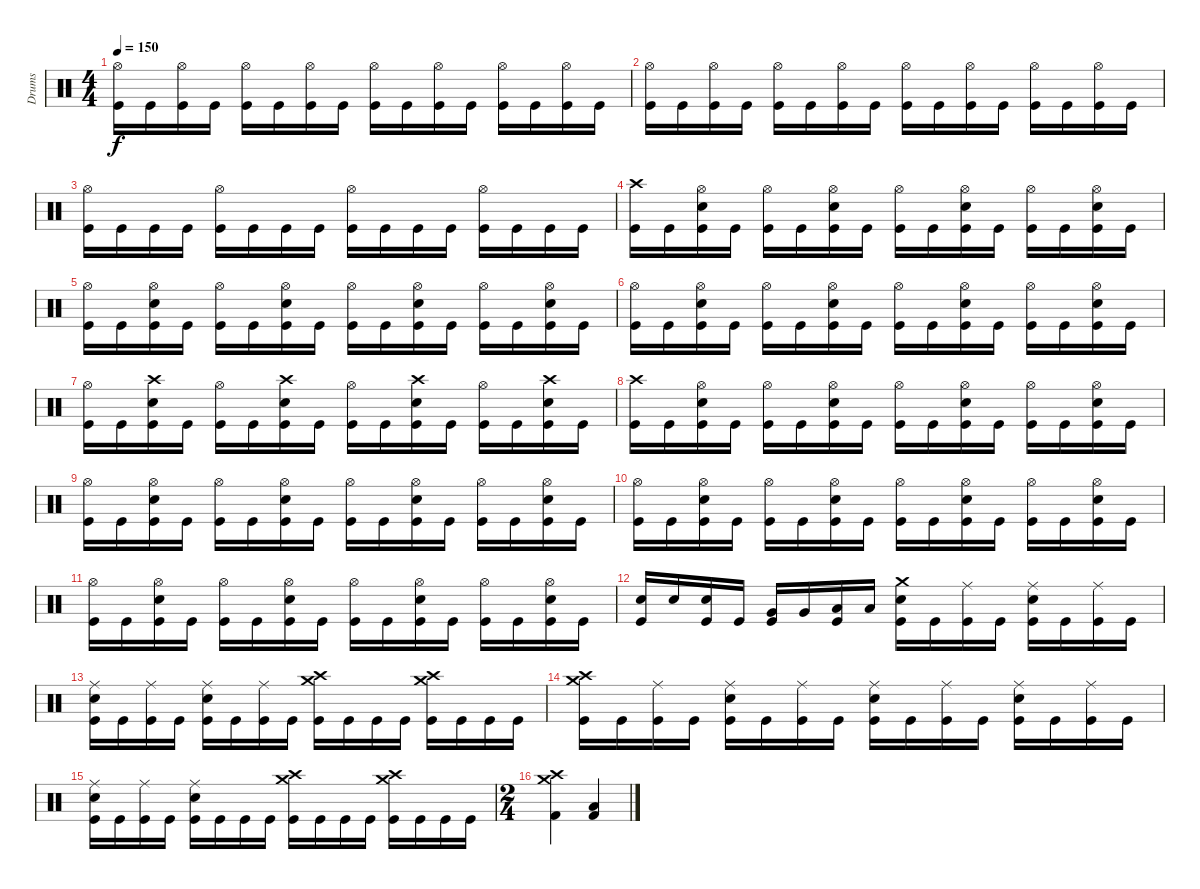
\track ("Drums" "Drums") {instrument percussion}
\staff {score}
\articulation defaults
\ts (4 4)
\tempo 150
\clef neutral
\ks c
("Hi-Hat (open)" "Kick (hit)").16{dy f} "Kick (hit)".16 ("Hi-Hat (open)" "Kick (hit)").16 "Kick (hit)".16 ("Hi-Hat (open)" "Kick (hit)").16 "Kick (hit)".16 ("Hi-Hat (open)" "Kick (hit)").16 "Kick (hit)".16 ("Hi-Hat (open)" "Kick (hit)").16 "Kick (hit)".16 ("Hi-Hat (open)" "Kick (hit)").16 "Kick (hit)".16 ("Hi-Hat (open)" "Kick (hit)").16 "Kick (hit)".16 ("Hi-Hat (open)" "Kick (hit)").16 "Kick (hit)".16 |
("Hi-Hat (open)" "Kick (hit)").16 "Kick (hit)".16 ("Hi-Hat (open)" "Kick (hit)").16 "Kick (hit)".16 ("Hi-Hat (open)" "Kick (hit)").16 "Kick (hit)".16 ("Hi-Hat (open)" "Kick (hit)").16 "Kick (hit)".16 ("Hi-Hat (open)" "Kick (hit)").16 "Kick (hit)".16 ("Hi-Hat (open)" "Kick (hit)").16 "Kick (hit)".16 ("Hi-Hat (open)" "Kick (hit)").16 "Kick (hit)".16 ("Hi-Hat (open)" "Kick (hit)").16 "Kick (hit)".16 |
("Hi-Hat (open)" "Kick (hit)").16 "Kick (hit)".16 "Kick (hit)".16 "Kick (hit)".16 ("Hi-Hat (open)" "Kick (hit)").16 "Kick (hit)".16 "Kick (hit)".16 "Kick (hit)".16 ("Hi-Hat (open)" "Kick (hit)").16 "Kick (hit)".16 "Kick (hit)".16 "Kick (hit)".16 ("Hi-Hat (open)" "Kick (hit)").16 "Kick (hit)".16 "Kick (hit)".16 "Kick (hit)".16 |
("Crash high (hit)" "Kick (hit)").16 "Kick (hit)".16 ("Hi-Hat (open)" "Snare (hit) 2" "Kick (hit)").16 "Kick (hit)".16 ("Hi-Hat (open)" "Kick (hit)").16 "Kick (hit)".16 ("Hi-Hat (open)" "Snare (hit) 2" "Kick (hit)").16 "Kick (hit)".16 ("Hi-Hat (open)" "Kick (hit)").16 "Kick (hit)".16 ("Hi-Hat (open)" "Snare (hit) 2" "Kick (hit)").16 "Kick (hit)".16 ("Hi-Hat (open)" "Kick (hit)").16 "Kick (hit)".16 ("Hi-Hat (open)" "Snare (hit) 2" "Kick (hit)").16 "Kick (hit)".16 |
("Hi-Hat (open)" "Kick (hit)").16 "Kick (hit)".16 ("Hi-Hat (open)" "Snare (hit) 2" "Kick (hit)").16 "Kick (hit)".16 ("Hi-Hat (open)" "Kick (hit)").16 "Kick (hit)".16 ("Hi-Hat (open)" "Snare (hit) 2" "Kick (hit)").16 "Kick (hit)".16 ("Hi-Hat (open)" "Kick (hit)").16 "Kick (hit)".16 ("Hi-Hat (open)" "Snare (hit) 2" "Kick (hit)").16 "Kick (hit)".16 ("Hi-Hat (open)" "Kick (hit)").16 "Kick (hit)".16 ("Hi-Hat (open)" "Snare (hit) 2" "Kick (hit)").16 "Kick (hit)".16 |
("Hi-Hat (open)" "Kick (hit)").16 "Kick (hit)".16 ("Hi-Hat (open)" "Snare (hit) 2" "Kick (hit)").16 "Kick (hit)".16 ("Hi-Hat (open)" "Kick (hit)").16 "Kick (hit)".16 ("Hi-Hat (open)" "Snare (hit) 2" "Kick (hit)").16 "Kick (hit)".16 ("Hi-Hat (open)" "Kick (hit)").16 "Kick (hit)".16 ("Hi-Hat (open)" "Snare (hit) 2" "Kick (hit)").16 "Kick (hit)".16 ("Hi-Hat (open)" "Kick (hit)").16 "Kick (hit)".16 ("Hi-Hat (open)" "Snare (hit) 2" "Kick (hit)").16 "Kick (hit)".16 |
("Hi-Hat (open)" "Kick (hit)").16 "Kick (hit)".16 ("Crash high (hit)" "Snare (hit) 2" "Kick (hit)").16 "Kick (hit)".16 ("Hi-Hat (open)" "Kick (hit)").16 "Kick (hit)".16 ("Crash high (hit)" "Snare (hit) 2" "Kick (hit)").16 "Kick (hit)".16 ("Hi-Hat (open)" "Kick (hit)").16 "Kick (hit)".16 ("Crash high (hit)" "Snare (hit) 2" "Kick (hit)").16 "Kick (hit)".16 ("Hi-Hat (open)" "Kick (hit)").16 "Kick (hit)".16 ("Crash high (hit)" "Snare (hit) 2" "Kick (hit)").16 "Kick (hit)".16 |
("Crash high (hit)" "Kick (hit)").16 "Kick (hit)".16 ("Hi-Hat (open)" "Snare (hit) 2" "Kick (hit)").16 "Kick (hit)".16 ("Hi-Hat (open)" "Kick (hit)").16 "Kick (hit)".16 ("Hi-Hat (open)" "Snare (hit) 2" "Kick (hit)").16 "Kick (hit)".16 ("Hi-Hat (open)" "Kick (hit)").16 "Kick (hit)".16 ("Hi-Hat (open)" "Snare (hit) 2" "Kick (hit)").16 "Kick (hit)".16 ("Hi-Hat (open)" "Kick (hit)").16 "Kick (hit)".16 ("Hi-Hat (open)" "Snare (hit) 2" "Kick (hit)").16 "Kick (hit)".16 |
("Hi-Hat (open)" "Kick (hit)").16 "Kick (hit)".16 ("Hi-Hat (open)" "Snare (hit) 2" "Kick (hit)").16 "Kick (hit)".16 ("Hi-Hat (open)" "Kick (hit)").16 "Kick (hit)".16 ("Hi-Hat (open)" "Snare (hit) 2" "Kick (hit)").16 "Kick (hit)".16 ("Hi-Hat (open)" "Kick (hit)").16 "Kick (hit)".16 ("Hi-Hat (open)" "Snare (hit) 2" "Kick (hit)").16 "Kick (hit)".16 ("Hi-Hat (open)" "Kick (hit)").16 "Kick (hit)".16 ("Hi-Hat (open)" "Snare (hit) 2" "Kick (hit)").16 "Kick (hit)".16 |
("Hi-Hat (open)" "Kick (hit)").16 "Kick (hit)".16 ("Hi-Hat (open)" "Snare (hit) 2" "Kick (hit)").16 "Kick (hit)".16 ("Hi-Hat (open)" "Kick (hit)").16 "Kick (hit)".16 ("Hi-Hat (open)" "Snare (hit) 2" "Kick (hit)").16 "Kick (hit)".16 ("Hi-Hat (open)" "Kick (hit)").16 "Kick (hit)".16 ("Hi-Hat (open)" "Snare (hit) 2" "Kick (hit)").16 "Kick (hit)".16 ("Hi-Hat (open)" "Kick (hit)").16 "Kick (hit)".16 ("Hi-Hat (open)" "Snare (hit) 2" "Kick (hit)").16 "Kick (hit)".16 |
("Hi-Hat (open)" "Kick (hit)").16 "Kick (hit)".16 ("Hi-Hat (open)" "Snare (hit) 2" "Kick (hit)").16 "Kick (hit)".16 ("Hi-Hat (open)" "Kick (hit)").16 "Kick (hit)".16 ("Hi-Hat (open)" "Snare (hit) 2" "Kick (hit)").16 "Kick (hit)".16 ("Hi-Hat (open)" "Kick (hit)").16 "Kick (hit)".16 ("Hi-Hat (open)" "Snare (hit) 2" "Kick (hit)").16 "Kick (hit)".16 ("Hi-Hat (open)" "Kick (hit)").16 "Kick (hit)".16 ("Hi-Hat (open)" "Snare (hit) 2" "Kick (hit)").16 "Kick (hit)".16 |
("Snare (hit) 2" "Kick (hit)").16 "Snare (hit) 2".16 ("Snare (hit) 2" "Kick (hit)").16 "Kick (hit)".16 ("Very Low Tom (hit)" "Kick (hit)").16 "Very Low Tom (hit)".16 ("Low Floor Tom (hit)" "Kick (hit)").16 "Low Floor Tom (hit)".16 ("Crash medium (hit)" "Snare (hit) 2" "Kick (hit)").16 "Kick (hit)".16 ("Ride (middle)" "Kick (hit)").16 "Kick (hit)".16 ("Ride (middle)" "Snare (hit) 2" "Kick (hit)").16 "Kick (hit)".16 ("Ride (middle)" "Kick (hit)").16 "Kick (hit)".16 |
("Ride (middle)" "Snare (hit) 2" "Kick (hit)").16 "Kick (hit)".16 ("Ride (middle)" "Kick (hit)").16 "Kick (hit)".16 ("Ride (middle)" "Snare (hit) 2" "Kick (hit)").16 "Kick (hit)".16 ("Ride (middle)" "Kick (hit)").16 "Kick (hit)".16 ("Crash medium (hit)" "Crash high (hit)" "Kick (hit)").16 "Kick (hit)".16 "Kick (hit)".16 "Kick (hit)".16 ("Crash medium (hit)" "Crash high (hit)" "Kick (hit)").16 "Kick (hit)".16 "Kick (hit)".16 "Kick (hit)".16 |
("Crash medium (hit)" "Crash high (hit)" "Kick (hit)").16 "Kick (hit)".16 ("Ride (middle)" "Kick (hit)").16 "Kick (hit)".16 ("Ride (middle)" "Snare (hit) 2" "Kick (hit)").16 "Kick (hit)".16 ("Ride (middle)" "Kick (hit)").16 "Kick (hit)".16 ("Ride (middle)" "Snare (hit) 2" "Kick (hit)").16 "Kick (hit)".16 ("Ride (middle)" "Kick (hit)").16 "Kick (hit)".16 ("Ride (middle)" "Snare (hit) 2" "Kick (hit)").16 "Kick (hit)".16 ("Ride (middle)" "Kick (hit)").16 "Kick (hit)".16 |
("Ride (middle)" "Snare (hit) 2" "Kick (hit)").16 "Kick (hit)".16 ("Ride (middle)" "Kick (hit)").16 "Kick (hit)".16 ("Ride (middle)" "Snare (hit) 2" "Kick (hit)").16 "Kick (hit)".16 "Kick (hit)".16 "Kick (hit)".16 ("Crash medium (hit)" "Crash high (hit)" "Kick (hit)").16 "Kick (hit)".16 "Kick (hit)".16 "Kick (hit)".16 ("Crash medium (hit)" "Crash high (hit)" "Kick (hit)").16 "Kick (hit)".16 "Kick (hit)".16 "Kick (hit)".16 |
\ts (2 4)
("Crash medium (hit)" "Crash high (hit)" "Kick (hit) 2").4 ("Low Floor Tom (hit)" "Kick (hit) 2").4
